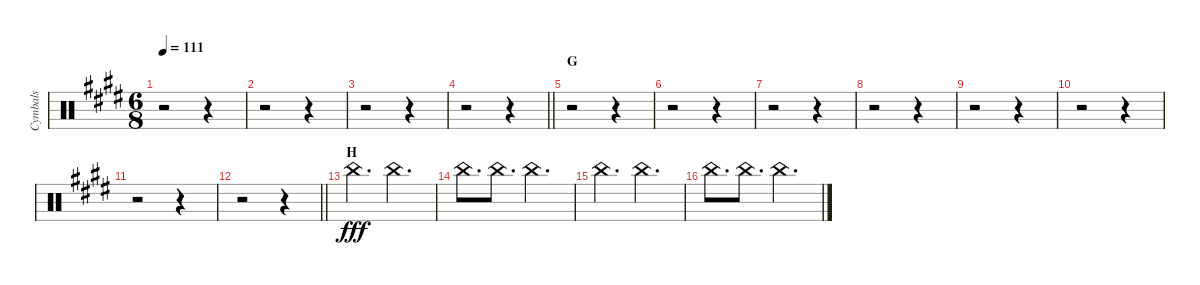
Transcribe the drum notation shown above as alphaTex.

\track ("Cymbals" "Cymbals") {instrument percussion}
\staff {score}
\articulation defaults
\ts (6 8)
\tempo 111
\clef neutral
\ks e
r.2{dy p} r.4 |
r.2 r.4 |
r.2 r.4 |
\barLineRight lightlight
r.2 r.4 |
\section ("" "G")
r.2 r.4 |
r.2 r.4 |
r.2 r.4 |
r.2 r.4 |
r.2 r.4 |
r.2 r.4 |
r.2 r.4 |
\barLineRight lightlight
r.2 r.4 |
\section ("" "H")
"China (hit)".4{d dy fff} "China (hit)".4{d} |
"China (hit)".8{d} "China (hit)".8{d} "China (hit)".4{d} |
"China (hit)".4{d} "China (hit)".4{d} |
"China (hit)".8{d} "China (hit)".8{d} "China (hit)".4{d}
